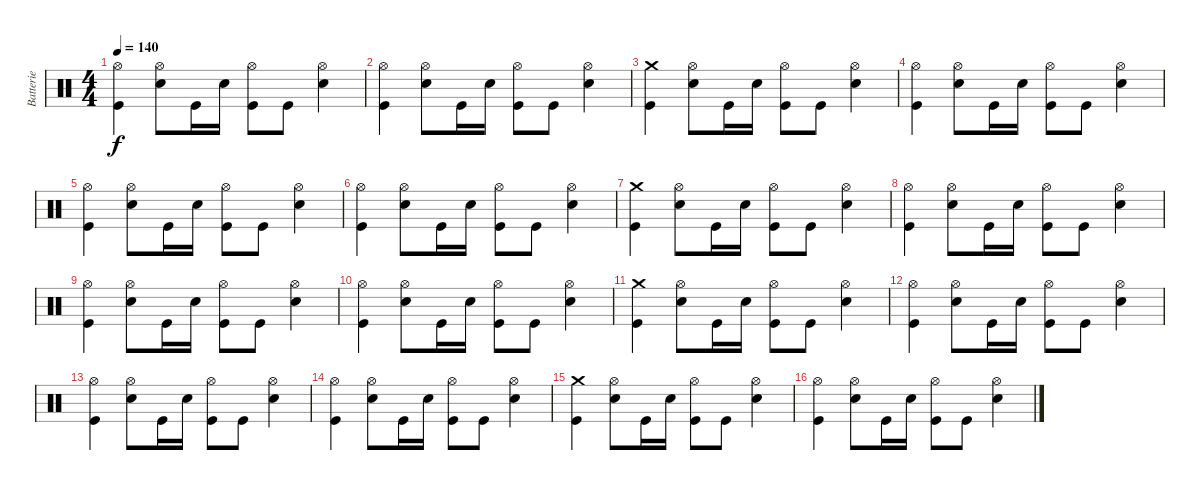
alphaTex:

\track ("Batterie" "Batterie") {instrument percussion}
\staff {score}
\articulation defaults
\ts (4 4)
\tempo 140
\clef neutral
\ks c
("Hi-Hat (open)" "Kick (hit)").4{dy f} ("Hi-Hat (open)" "Electric Snare (hit)").8 "Kick (hit)".16 "Electric Snare (hit)".16 ("Hi-Hat (open)" "Kick (hit)").8 "Kick (hit)".8 ("Hi-Hat (open)" "Electric Snare (hit)").4 |
("Hi-Hat (open)" "Kick (hit)").4 ("Hi-Hat (open)" "Electric Snare (hit)").8 "Kick (hit)".16 "Electric Snare (hit)".16 ("Hi-Hat (open)" "Kick (hit)").8 "Kick (hit)".8 ("Hi-Hat (open)" "Electric Snare (hit)").4 |
("Crash medium (hit)" "Kick (hit)").4 ("Hi-Hat (open)" "Electric Snare (hit)").8 "Kick (hit)".16 "Electric Snare (hit)".16 ("Hi-Hat (open)" "Kick (hit)").8 "Kick (hit)".8 ("Hi-Hat (open)" "Electric Snare (hit)").4 |
("Hi-Hat (open)" "Kick (hit)").4 ("Hi-Hat (open)" "Electric Snare (hit)").8 "Kick (hit)".16 "Electric Snare (hit)".16 ("Hi-Hat (open)" "Kick (hit)").8 "Kick (hit)".8 ("Hi-Hat (open)" "Electric Snare (hit)").4 |
("Hi-Hat (open)" "Kick (hit)").4 ("Hi-Hat (open)" "Electric Snare (hit)").8 "Kick (hit)".16 "Electric Snare (hit)".16 ("Hi-Hat (open)" "Kick (hit)").8 "Kick (hit)".8 ("Hi-Hat (open)" "Electric Snare (hit)").4 |
("Hi-Hat (open)" "Kick (hit)").4 ("Hi-Hat (open)" "Electric Snare (hit)").8 "Kick (hit)".16 "Electric Snare (hit)".16 ("Hi-Hat (open)" "Kick (hit)").8 "Kick (hit)".8 ("Hi-Hat (open)" "Electric Snare (hit)").4 |
("Crash medium (hit)" "Kick (hit)").4 ("Hi-Hat (open)" "Electric Snare (hit)").8 "Kick (hit)".16 "Electric Snare (hit)".16 ("Hi-Hat (open)" "Kick (hit)").8 "Kick (hit)".8 ("Hi-Hat (open)" "Electric Snare (hit)").4 |
("Hi-Hat (open)" "Kick (hit)").4 ("Hi-Hat (open)" "Electric Snare (hit)").8 "Kick (hit)".16 "Electric Snare (hit)".16 ("Hi-Hat (open)" "Kick (hit)").8 "Kick (hit)".8 ("Hi-Hat (open)" "Electric Snare (hit)").4 |
("Hi-Hat (open)" "Kick (hit)").4 ("Hi-Hat (open)" "Electric Snare (hit)").8 "Kick (hit)".16 "Electric Snare (hit)".16 ("Hi-Hat (open)" "Kick (hit)").8 "Kick (hit)".8 ("Hi-Hat (open)" "Electric Snare (hit)").4 |
("Hi-Hat (open)" "Kick (hit)").4 ("Hi-Hat (open)" "Electric Snare (hit)").8 "Kick (hit)".16 "Electric Snare (hit)".16 ("Hi-Hat (open)" "Kick (hit)").8 "Kick (hit)".8 ("Hi-Hat (open)" "Electric Snare (hit)").4 |
("Crash medium (hit)" "Kick (hit)").4 ("Hi-Hat (open)" "Electric Snare (hit)").8 "Kick (hit)".16 "Electric Snare (hit)".16 ("Hi-Hat (open)" "Kick (hit)").8 "Kick (hit)".8 ("Hi-Hat (open)" "Electric Snare (hit)").4 |
("Hi-Hat (open)" "Kick (hit)").4 ("Hi-Hat (open)" "Electric Snare (hit)").8 "Kick (hit)".16 "Electric Snare (hit)".16 ("Hi-Hat (open)" "Kick (hit)").8 "Kick (hit)".8 ("Hi-Hat (open)" "Electric Snare (hit)").4 |
("Hi-Hat (open)" "Kick (hit)").4 ("Hi-Hat (open)" "Electric Snare (hit)").8 "Kick (hit)".16 "Electric Snare (hit)".16 ("Hi-Hat (open)" "Kick (hit)").8 "Kick (hit)".8 ("Hi-Hat (open)" "Electric Snare (hit)").4 |
("Hi-Hat (open)" "Kick (hit)").4 ("Hi-Hat (open)" "Electric Snare (hit)").8 "Kick (hit)".16 "Electric Snare (hit)".16 ("Hi-Hat (open)" "Kick (hit)").8 "Kick (hit)".8 ("Hi-Hat (open)" "Electric Snare (hit)").4 |
("Crash medium (hit)" "Kick (hit)").4 ("Hi-Hat (open)" "Electric Snare (hit)").8 "Kick (hit)".16 "Electric Snare (hit)".16 ("Hi-Hat (open)" "Kick (hit)").8 "Kick (hit)".8 ("Hi-Hat (open)" "Electric Snare (hit)").4 |
("Hi-Hat (open)" "Kick (hit)").4 ("Hi-Hat (open)" "Electric Snare (hit)").8 "Kick (hit)".16 "Electric Snare (hit)".16 ("Hi-Hat (open)" "Kick (hit)").8 "Kick (hit)".8 ("Hi-Hat (open)" "Electric Snare (hit)").4
